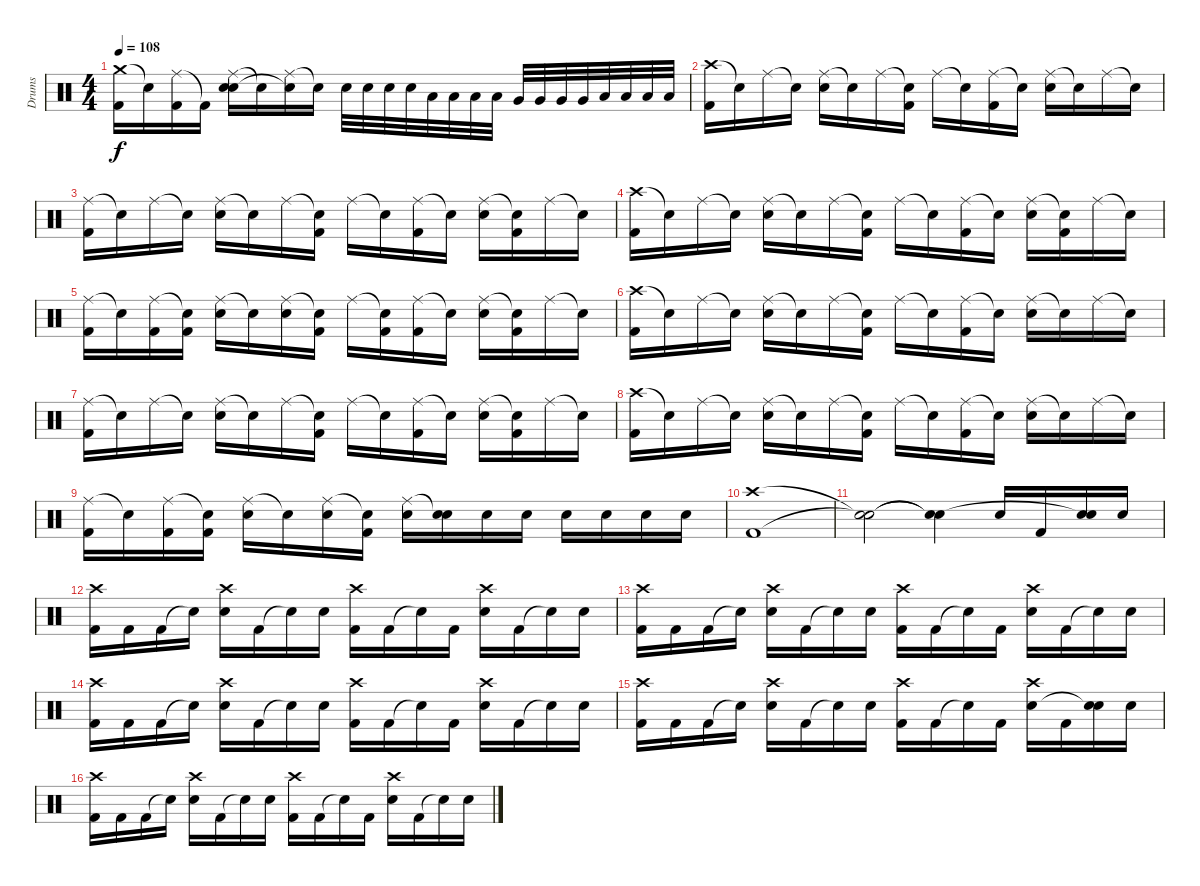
\track ("Drums" "Drums") {instrument percussion}
\staff {score}
\articulation defaults
\ts (4 4)
\tempo 108
\clef neutral
\ks c
("Crash medium (hit)" "Kick (hit) 2").16{dy f} "Snare (hit)"{t}.16 ("Ride (middle)" "Kick (hit) 2").16 "Kick (hit) 2"{t}.16 ("Ride (middle)" "Electric Snare (hit)" "Snare (hit)"{t}).16 "Snare (hit)"{t}.16 ("Ride (middle)" "Snare (hit)"{t}).16 "Snare (hit)"{t}.16 "Electric Snare (hit)".32 "Electric Snare (hit)".32 "Electric Snare (hit)".32 "Electric Snare (hit)".32 "Low Tom (hit)".32 "Low Tom (hit)".32 "Low Tom (hit)".32 "Low Tom (hit)".32 "Very Low Tom (hit)".32 "Very Low Tom (hit)".32 "Very Low Tom (hit)".32 "Very Low Tom (hit)".32 "Low Floor Tom (hit)".32 "Low Floor Tom (hit)".32 "Low Floor Tom (hit)".32 "Low Floor Tom (hit)".32 |
("Crash high (hit)" "Kick (hit) 2").16 "Snare (hit)"{t}.16 "Ride (middle)".16 "Snare (hit)"{t}.16 ("Ride (middle)" "Electric Snare (hit)").16 "Snare (hit)"{t}.16 "Ride (middle)".16 ("Snare (hit)"{t} "Kick (hit) 2").16 "Ride (middle)".16 "Snare (hit)"{t}.16 ("Ride (middle)" "Kick (hit) 2").16 "Snare (hit)"{t}.16 ("Ride (middle)" "Electric Snare (hit)").16 "Snare (hit)"{t}.16 "Ride (middle)".16 "Snare (hit)"{t}.16 |
("Ride (middle)" "Kick (hit) 2").16 "Snare (hit)"{t}.16 "Ride (middle)".16 "Snare (hit)"{t}.16 ("Ride (middle)" "Electric Snare (hit)").16 "Snare (hit)"{t}.16 "Ride (middle)".16 ("Snare (hit)"{t} "Kick (hit) 2").16 "Ride (middle)".16 "Snare (hit)"{t}.16 ("Ride (middle)" "Kick (hit) 2").16 "Snare (hit)"{t}.16 ("Ride (middle)" "Electric Snare (hit)").16 ("Snare (hit)"{t} "Kick (hit) 2").16 "Ride (middle)".16 "Snare (hit)"{t}.16 |
("Crash high (hit)" "Kick (hit) 2").16 "Snare (hit)"{t}.16 "Ride (middle)".16 "Snare (hit)"{t}.16 ("Ride (middle)" "Electric Snare (hit)").16 "Snare (hit)"{t}.16 "Ride (middle)".16 ("Snare (hit)"{t} "Kick (hit) 2").16 "Ride (middle)".16 "Snare (hit)"{t}.16 ("Ride (middle)" "Kick (hit) 2").16 "Snare (hit)"{t}.16 ("Ride (middle)" "Electric Snare (hit)").16 ("Snare (hit)"{t} "Kick (hit) 2").16 "Ride (middle)".16 "Snare (hit)"{t}.16 |
("Ride (middle)" "Kick (hit) 2").16 "Snare (hit)"{t}.16 ("Ride (middle)" "Kick (hit) 2").16 ("Snare (hit)"{t} "Kick (hit) 2").16 ("Ride (middle)" "Electric Snare (hit)").16 "Snare (hit)"{t}.16 ("Ride (middle)" "Electric Snare (hit)").16 ("Snare (hit)"{t} "Kick (hit) 2").16 "Ride (middle)".16 ("Snare (hit)"{t} "Kick (hit) 2").16 ("Ride (middle)" "Kick (hit) 2").16 "Snare (hit)"{t}.16 ("Ride (middle)" "Electric Snare (hit)").16 ("Snare (hit)"{t} "Kick (hit) 2").16 "Ride (middle)".16 "Snare (hit)"{t}.16 |
("Crash high (hit)" "Kick (hit) 2").16 "Snare (hit)"{t}.16 "Ride (middle)".16 "Snare (hit)"{t}.16 ("Ride (middle)" "Electric Snare (hit)").16 "Snare (hit)"{t}.16 "Ride (middle)".16 ("Snare (hit)"{t} "Kick (hit) 2").16 "Ride (middle)".16 "Snare (hit)"{t}.16 ("Ride (middle)" "Kick (hit) 2").16 "Snare (hit)"{t}.16 ("Ride (middle)" "Electric Snare (hit)").16 "Snare (hit)"{t}.16 "Ride (middle)".16 "Snare (hit)"{t}.16 |
("Ride (middle)" "Kick (hit) 2").16 "Snare (hit)"{t}.16 "Ride (middle)".16 "Snare (hit)"{t}.16 ("Ride (middle)" "Electric Snare (hit)").16 "Snare (hit)"{t}.16 "Ride (middle)".16 ("Snare (hit)"{t} "Kick (hit) 2").16 "Ride (middle)".16 "Snare (hit)"{t}.16 ("Ride (middle)" "Kick (hit) 2").16 "Snare (hit)"{t}.16 ("Ride (middle)" "Electric Snare (hit)").16 ("Snare (hit)"{t} "Kick (hit) 2").16 "Ride (middle)".16 "Snare (hit)"{t}.16 |
("Crash high (hit)" "Kick (hit) 2").16 "Snare (hit)"{t}.16 "Ride (middle)".16 "Snare (hit)"{t}.16 ("Ride (middle)" "Electric Snare (hit)").16 "Snare (hit)"{t}.16 "Ride (middle)".16 ("Snare (hit)"{t} "Kick (hit) 2").16 "Ride (middle)".16 "Snare (hit)"{t}.16 ("Ride (middle)" "Kick (hit) 2").16 "Snare (hit)"{t}.16 ("Ride (middle)" "Electric Snare (hit)").16 "Snare (hit)"{t}.16 "Ride (middle)".16 "Snare (hit)"{t}.16 |
("Ride (middle)" "Kick (hit) 2").16 "Snare (hit)"{t}.16 ("Ride (middle)" "Kick (hit) 2").16 ("Snare (hit)"{t} "Kick (hit) 2").16 ("Ride (middle)" "Electric Snare (hit)").16 "Snare (hit)"{t}.16 ("Ride (middle)" "Electric Snare (hit)").16 ("Snare (hit)"{t} "Kick (hit) 2").16 ("Ride (middle)" "Electric Snare (hit)").16 ("Snare (hit)"{t} "Electric Snare (hit)").16 "Electric Snare (hit)".16 "Electric Snare (hit)".16 "Electric Snare (hit)".16 "Electric Snare (hit)".16 "Electric Snare (hit)".16 "Electric Snare (hit)".16 |
("Crash high (hit)" "Kick (hit) 2").1 |
("Snare (hit)"{t} "Snare (hit)"{t}).2 ("Snare (hit)"{t} "Snare (hit)"{t}).4 "Electric Snare (hit)".16 "Kick (hit) 2".16 ("Electric Snare (hit)" "Snare (hit)"{t}).16 "Electric Snare (hit)".16 |
("Crash high (hit)" "Kick (hit) 2").16 "Kick (hit) 2".16 "Kick (hit) 2".16 "Snare (hit)"{t}.16 ("Crash high (hit)" "Electric Snare (hit)").16 "Kick (hit) 2".16 "Snare (hit)"{t}.16 "Electric Snare (hit)".16 ("Crash high (hit)" "Kick (hit) 2").16 "Kick (hit) 2".16 "Snare (hit)"{t}.16 "Kick (hit) 2".16 ("Crash high (hit)" "Electric Snare (hit)").16 "Kick (hit) 2".16 "Snare (hit)"{t}.16 "Electric Snare (hit)".16 |
("Crash high (hit)" "Kick (hit) 2").16 "Kick (hit) 2".16 "Kick (hit) 2".16 "Snare (hit)"{t}.16 ("Crash high (hit)" "Electric Snare (hit)").16 "Kick (hit) 2".16 "Snare (hit)"{t}.16 "Electric Snare (hit)".16 ("Crash high (hit)" "Kick (hit) 2").16 "Kick (hit) 2".16 "Snare (hit)"{t}.16 "Kick (hit) 2".16 ("Crash high (hit)" "Electric Snare (hit)").16 "Kick (hit) 2".16 "Snare (hit)"{t}.16 "Electric Snare (hit)".16 |
("Crash high (hit)" "Kick (hit) 2").16 "Kick (hit) 2".16 "Kick (hit) 2".16 "Snare (hit)"{t}.16 ("Crash high (hit)" "Electric Snare (hit)").16 "Kick (hit) 2".16 "Snare (hit)"{t}.16 "Electric Snare (hit)".16 ("Crash high (hit)" "Kick (hit) 2").16 "Kick (hit) 2".16 "Snare (hit)"{t}.16 "Kick (hit) 2".16 ("Crash high (hit)" "Electric Snare (hit)").16 "Kick (hit) 2".16 "Snare (hit)"{t}.16 "Electric Snare (hit)".16 |
("Crash high (hit)" "Kick (hit) 2").16 "Kick (hit) 2".16 "Kick (hit) 2".16 "Snare (hit)"{t}.16 ("Crash high (hit)" "Electric Snare (hit)").16 "Kick (hit) 2".16 "Snare (hit)"{t}.16 "Electric Snare (hit)".16 ("Crash high (hit)" "Kick (hit) 2").16 "Kick (hit) 2".16 "Snare (hit)"{t}.16 "Kick (hit) 2".16 ("Crash high (hit)" "Electric Snare (hit)").16 "Kick (hit) 2".16 ("Electric Snare (hit)" "Snare (hit)"{t}).16 "Electric Snare (hit)".16 |
("Crash high (hit)" "Kick (hit) 2").16 "Kick (hit) 2".16 "Kick (hit) 2".16 "Snare (hit)"{t}.16 ("Crash high (hit)" "Electric Snare (hit)").16 "Kick (hit) 2".16 "Snare (hit)"{t}.16 "Electric Snare (hit)".16 ("Crash high (hit)" "Kick (hit) 2").16 "Kick (hit) 2".16 "Snare (hit)"{t}.16 "Kick (hit) 2".16 ("Crash high (hit)" "Electric Snare (hit)").16 "Kick (hit) 2".16 "Snare (hit)"{t}.16 "Electric Snare (hit)".16
